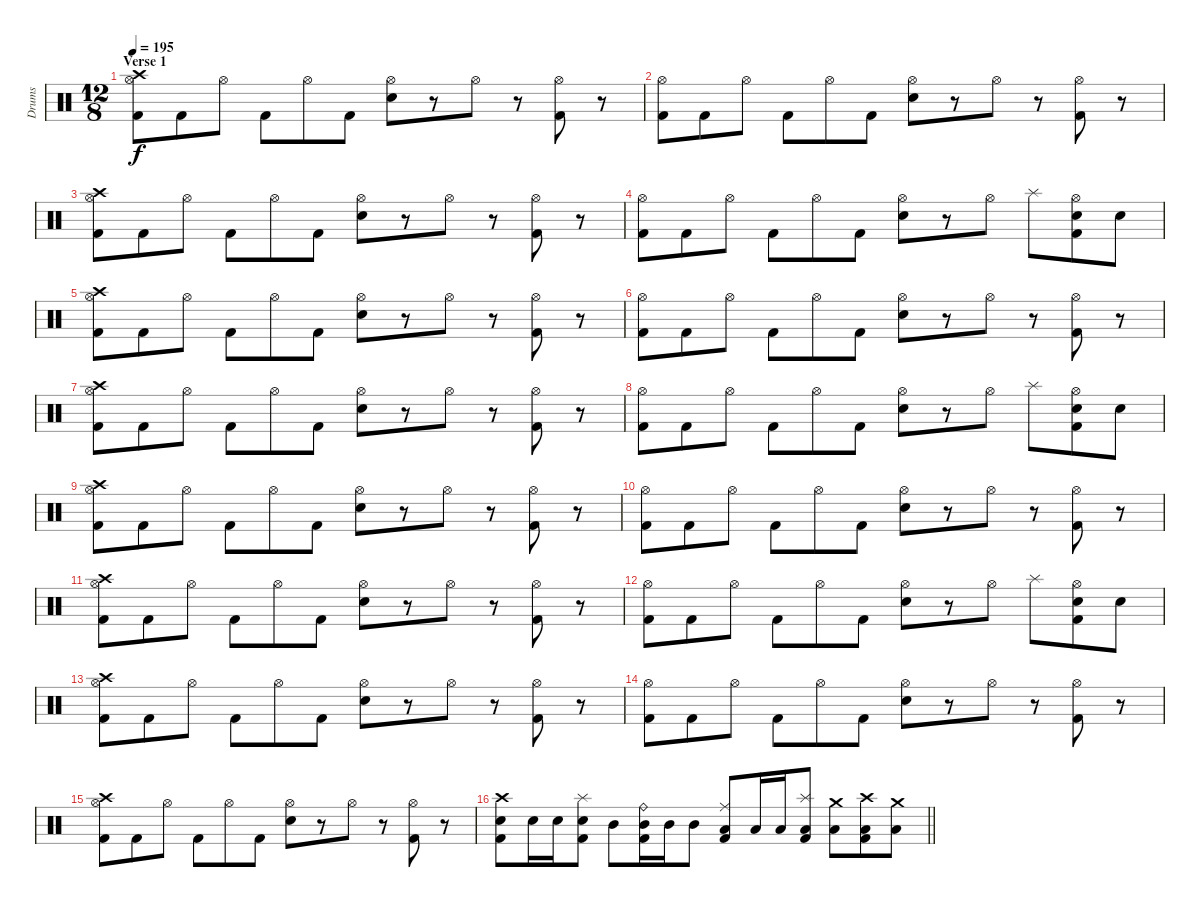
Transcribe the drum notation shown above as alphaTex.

\track ("Drums" "Drums") {instrument percussion}
\staff {score}
\articulation defaults
\ts (12 8)
\section ("" "Verse 1")
\tempo 195
\clef neutral
\ks c
("Crash high (hit)" "Hi-Hat (open)" "Kick (hit) 2").8{dy f} "Kick (hit) 2".8 "Hi-Hat (open)".8 "Kick (hit) 2".8 "Hi-Hat (open)".8 "Kick (hit) 2".8 ("Hi-Hat (open)" "Snare (hit) 2").8 r.8 "Hi-Hat (open)".8 r.8 ("Hi-Hat (open)" "Kick (hit) 2").8 r.8 |
("Hi-Hat (open)" "Kick (hit) 2").8 "Kick (hit) 2".8 "Hi-Hat (open)".8 "Kick (hit) 2".8 "Hi-Hat (open)".8 "Kick (hit) 2".8 ("Hi-Hat (open)" "Snare (hit) 2").8 r.8 "Hi-Hat (open)".8 r.8 ("Hi-Hat (open)" "Kick (hit) 2").8 r.8 |
("Crash high (hit)" "Hi-Hat (open)" "Kick (hit) 2").8 "Kick (hit) 2".8 "Hi-Hat (open)".8 "Kick (hit) 2".8 "Hi-Hat (open)".8 "Kick (hit) 2".8 ("Hi-Hat (open)" "Snare (hit) 2").8 r.8 "Hi-Hat (open)".8 r.8 ("Hi-Hat (open)" "Kick (hit) 2").8 r.8 |
("Hi-Hat (open)" "Kick (hit) 2").8 "Kick (hit) 2".8 "Hi-Hat (open)".8 "Kick (hit) 2".8 "Hi-Hat (open)".8 "Kick (hit) 2".8 ("Hi-Hat (open)" "Snare (hit) 2").8 r.8 "Hi-Hat (open)".8 "Splash (hit)".8 ("Hi-Hat (open)" "Snare (hit) 2" "Kick (hit) 2").8 "Snare (hit) 2".8 |
("Crash high (hit)" "Hi-Hat (open)" "Kick (hit) 2").8 "Kick (hit) 2".8 "Hi-Hat (open)".8 "Kick (hit) 2".8 "Hi-Hat (open)".8 "Kick (hit) 2".8 ("Hi-Hat (open)" "Snare (hit) 2").8 r.8 "Hi-Hat (open)".8 r.8 ("Hi-Hat (open)" "Kick (hit) 2").8 r.8 |
("Hi-Hat (open)" "Kick (hit) 2").8 "Kick (hit) 2".8 "Hi-Hat (open)".8 "Kick (hit) 2".8 "Hi-Hat (open)".8 "Kick (hit) 2".8 ("Hi-Hat (open)" "Snare (hit) 2").8 r.8 "Hi-Hat (open)".8 r.8 ("Hi-Hat (open)" "Kick (hit) 2").8 r.8 |
("Crash high (hit)" "Hi-Hat (open)" "Kick (hit) 2").8 "Kick (hit) 2".8 "Hi-Hat (open)".8 "Kick (hit) 2".8 "Hi-Hat (open)".8 "Kick (hit) 2".8 ("Hi-Hat (open)" "Snare (hit) 2").8 r.8 "Hi-Hat (open)".8 r.8 ("Hi-Hat (open)" "Kick (hit) 2").8 r.8 |
("Hi-Hat (open)" "Kick (hit) 2").8 "Kick (hit) 2".8 "Hi-Hat (open)".8 "Kick (hit) 2".8 "Hi-Hat (open)".8 "Kick (hit) 2".8 ("Hi-Hat (open)" "Snare (hit) 2").8 r.8 "Hi-Hat (open)".8 "Splash (hit)".8 ("Hi-Hat (open)" "Snare (hit) 2" "Kick (hit) 2").8 "Snare (hit) 2".8 |
("Crash high (hit)" "Hi-Hat (open)" "Kick (hit) 2").8 "Kick (hit) 2".8 "Hi-Hat (open)".8 "Kick (hit) 2".8 "Hi-Hat (open)".8 "Kick (hit) 2".8 ("Hi-Hat (open)" "Snare (hit) 2").8 r.8 "Hi-Hat (open)".8 r.8 ("Hi-Hat (open)" "Kick (hit) 2").8 r.8 |
("Hi-Hat (open)" "Kick (hit) 2").8 "Kick (hit) 2".8 "Hi-Hat (open)".8 "Kick (hit) 2".8 "Hi-Hat (open)".8 "Kick (hit) 2".8 ("Hi-Hat (open)" "Snare (hit) 2").8 r.8 "Hi-Hat (open)".8 r.8 ("Hi-Hat (open)" "Kick (hit) 2").8 r.8 |
("Crash high (hit)" "Hi-Hat (open)" "Kick (hit) 2").8 "Kick (hit) 2".8 "Hi-Hat (open)".8 "Kick (hit) 2".8 "Hi-Hat (open)".8 "Kick (hit) 2".8 ("Hi-Hat (open)" "Snare (hit) 2").8 r.8 "Hi-Hat (open)".8 r.8 ("Hi-Hat (open)" "Kick (hit) 2").8 r.8 |
("Hi-Hat (open)" "Kick (hit) 2").8 "Kick (hit) 2".8 "Hi-Hat (open)".8 "Kick (hit) 2".8 "Hi-Hat (open)".8 "Kick (hit) 2".8 ("Hi-Hat (open)" "Snare (hit) 2").8 r.8 "Hi-Hat (open)".8 "Splash (hit)".8 ("Hi-Hat (open)" "Snare (hit) 2" "Kick (hit) 2").8 "Snare (hit) 2".8 |
("Crash high (hit)" "Hi-Hat (open)" "Kick (hit) 2").8 "Kick (hit) 2".8 "Hi-Hat (open)".8 "Kick (hit) 2".8 "Hi-Hat (open)".8 "Kick (hit) 2".8 ("Hi-Hat (open)" "Snare (hit) 2").8 r.8 "Hi-Hat (open)".8 r.8 ("Hi-Hat (open)" "Kick (hit) 2").8 r.8 |
("Hi-Hat (open)" "Kick (hit) 2").8 "Kick (hit) 2".8 "Hi-Hat (open)".8 "Kick (hit) 2".8 "Hi-Hat (open)".8 "Kick (hit) 2".8 ("Hi-Hat (open)" "Snare (hit) 2").8 r.8 "Hi-Hat (open)".8 r.8 ("Hi-Hat (open)" "Kick (hit) 2").8 r.8 |
("Crash high (hit)" "Hi-Hat (open)" "Kick (hit) 2").8 "Kick (hit) 2".8 "Hi-Hat (open)".8 "Kick (hit) 2".8 "Hi-Hat (open)".8 "Kick (hit) 2".8 ("Hi-Hat (open)" "Snare (hit) 2").8 r.8 "Hi-Hat (open)".8 r.8 ("Hi-Hat (open)" "Kick (hit) 2").8 r.8 |
\barLineRight lightlight
("Crash high (hit)" "Snare (hit) 2" "Kick (hit) 2").8 "Snare (hit) 2".16 "Snare (hit) 2".16 ("Splash (hit)" "Snare (hit) 2" "Kick (hit) 2").8 "Mid Tom (hit)".8 ("Ride (bell)" "Mid Tom (hit)" "Kick (hit) 2").16 "Mid Tom (hit)".16 "Mid Tom (hit)".8 ("Ride (middle)" "Low Tom (hit)" "Kick (hit) 2").8 "Low Tom (hit)".16 "Low Tom (hit)".16 ("Splash (hit)" "Low Tom (hit)" "Kick (hit) 2").8 ("Crash medium (hit)" "Low Floor Tom (hit)").8 ("Crash high (hit)" "Low Floor Tom (hit)" "Kick (hit) 2").8 ("Crash medium (hit)" "Low Floor Tom (hit)").8
